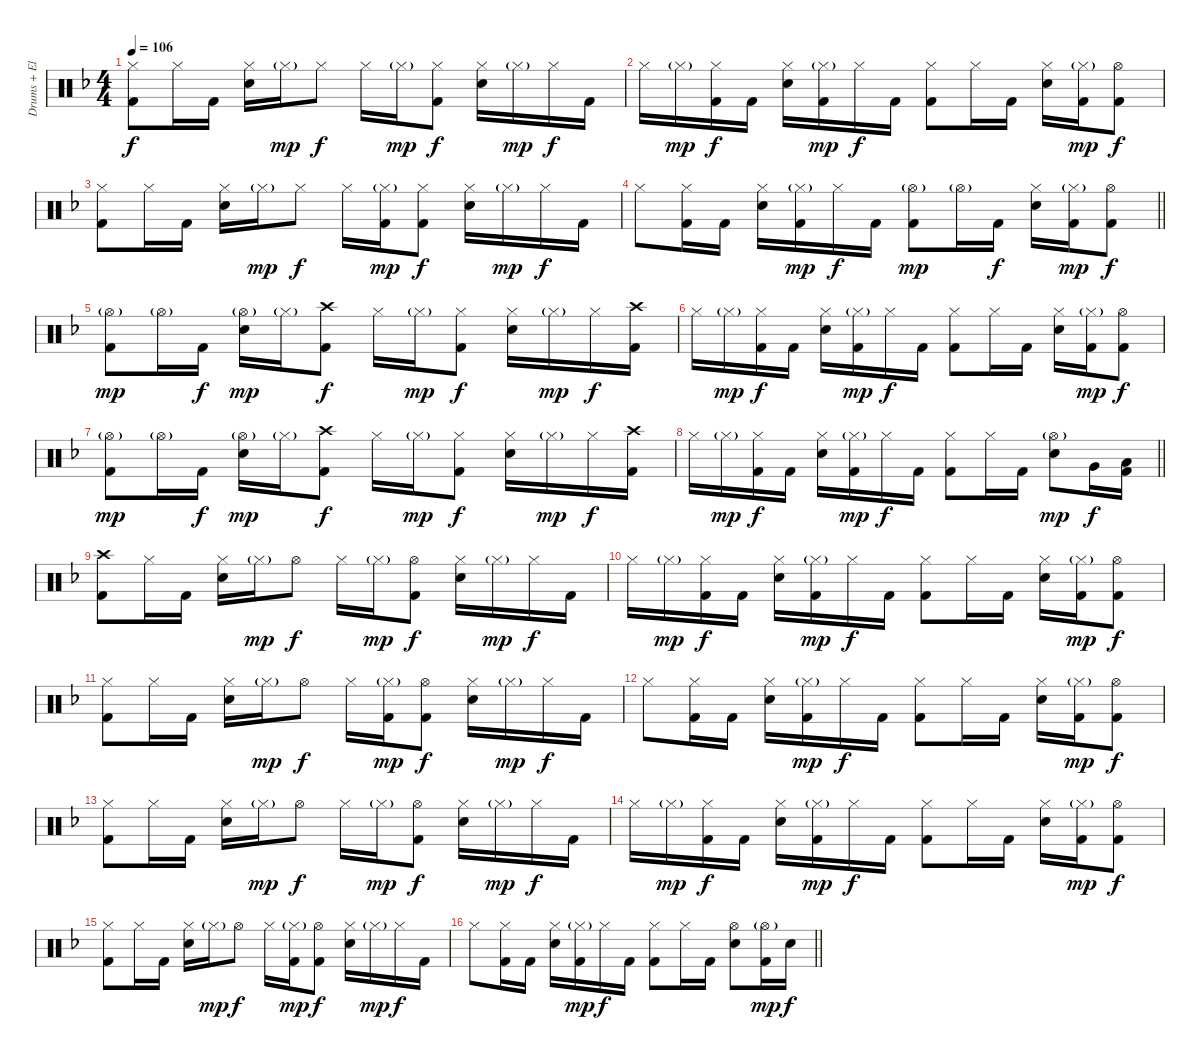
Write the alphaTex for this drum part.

\track ("Drums + Electronic drum pads" "Drums + El") {instrument percussion}
\staff {score}
\articulation defaults
\ts (4 4)
\tempo 106
\clef neutral
\ks dminor
("Hi-Hat (closed)" "Kick (hit) 2").8{dy f} "Hi-Hat (closed)".16 "Kick (hit) 2".16 ("Hi-Hat (closed)" "Snare (hit) 2").16 "Hi-Hat (closed)"{g}.16{dy mp} "Hi-Hat (closed)".8{dy f} "Hi-Hat (closed)".16 "Hi-Hat (closed)"{g}.16{dy mp} ("Hi-Hat (closed)" "Kick (hit) 2").8{dy f} ("Hi-Hat (closed)" "Snare (hit) 2").16 "Hi-Hat (closed)"{g}.16{dy mp} "Hi-Hat (closed)".16{dy f} "Kick (hit) 2".16 |
"Hi-Hat (closed)".16 "Hi-Hat (closed)"{g}.16{dy mp} ("Hi-Hat (closed)" "Kick (hit) 2").16{dy f} "Kick (hit) 2".16 ("Hi-Hat (closed)" "Snare (hit) 2").16 ("Hi-Hat (closed)"{g} "Kick (hit) 2").16{dy mp} "Hi-Hat (closed)".16{dy f} "Kick (hit) 2".16 ("Hi-Hat (closed)" "Kick (hit) 2").8 "Hi-Hat (closed)".16 "Kick (hit) 2".16 ("Hi-Hat (closed)" "Snare (hit) 2").16 ("Hi-Hat (closed)"{g} "Kick (hit) 2").16{dy mp} ("Hi-Hat (open)" "Kick (hit) 2").8{dy f} |
("Hi-Hat (closed)" "Kick (hit) 2").8 "Hi-Hat (closed)".16 "Kick (hit) 2".16 ("Hi-Hat (closed)" "Snare (hit) 2").16 "Hi-Hat (closed)"{g}.16{dy mp} "Hi-Hat (closed)".8{dy f} "Hi-Hat (closed)".16 ("Hi-Hat (closed)"{g} "Kick (hit) 2").16{dy mp} ("Hi-Hat (closed)" "Kick (hit) 2").8{dy f} ("Hi-Hat (closed)" "Snare (hit) 2").16 "Hi-Hat (closed)"{g}.16{dy mp} "Hi-Hat (closed)".16{dy f} "Kick (hit) 2".16 |
\barLineRight lightlight "Hi-Hat (closed)".8
("Hi-Hat (closed)" "Kick (hit) 2").16 "Kick (hit) 2".16 ("Hi-Hat (closed)" "Snare (hit) 2").16 ("Hi-Hat (closed)"{g} "Kick (hit) 2").16{dy mp} "Hi-Hat (closed)".16{dy f} "Kick (hit) 2".16 ("Hi-Hat (open)"{g} "Kick (hit) 2").8{dy mp} "Hi-Hat (open)"{g}.16 "Kick (hit) 2".16{dy f} ("Hi-Hat (closed)" "Snare (hit) 2").16 ("Hi-Hat (closed)"{g} "Kick (hit) 2").16{dy mp} ("Hi-Hat (open)" "Kick (hit) 2").8{dy f} |
("Hi-Hat (open)"{g} "Kick (hit) 2").8{dy mp} "Hi-Hat (open)"{g}.16 "Kick (hit) 2".16{dy f} ("Hi-Hat (open)"{g} "Snare (hit) 2").16{dy mp} "Hi-Hat (closed)"{g}.16 ("Crash high (hit)" "Kick (hit) 2").8{dy f} "Hi-Hat (closed)".16 "Hi-Hat (closed)"{g}.16{dy mp} ("Hi-Hat (closed)" "Kick (hit) 2").8{dy f} ("Hi-Hat (closed)" "Snare (hit) 2").16 "Hi-Hat (closed)"{g}.16{dy mp} "Hi-Hat (closed)".16{dy f} ("Crash high (hit)" "Kick (hit) 2").16 |
"Hi-Hat (closed)".16 "Hi-Hat (closed)"{g}.16{dy mp} ("Hi-Hat (closed)" "Kick (hit) 2").16{dy f} "Kick (hit) 2".16 ("Hi-Hat (closed)" "Snare (hit) 2").16 ("Hi-Hat (closed)"{g} "Kick (hit) 2").16{dy mp} "Hi-Hat (closed)".16{dy f} "Kick (hit) 2".16 ("Hi-Hat (closed)" "Kick (hit) 2").8 "Hi-Hat (closed)".16 "Kick (hit) 2".16 ("Hi-Hat (closed)" "Snare (hit) 2").16 ("Hi-Hat (closed)"{g} "Kick (hit) 2").16{dy mp} ("Hi-Hat (open)" "Kick (hit) 2").8{dy f} |
("Hi-Hat (open)"{g} "Kick (hit) 2").8{dy mp} "Hi-Hat (open)"{g}.16 "Kick (hit) 2".16{dy f} ("Hi-Hat (open)"{g} "Snare (hit) 2").16{dy mp} "Hi-Hat (closed)"{g}.16 ("Crash high (hit)" "Kick (hit) 2").8{dy f} "Hi-Hat (closed)".16 "Hi-Hat (closed)"{g}.16{dy mp} ("Hi-Hat (closed)" "Kick (hit) 2").8{dy f} ("Hi-Hat (closed)" "Snare (hit) 2").16 "Hi-Hat (closed)"{g}.16{dy mp} "Hi-Hat (closed)".16{dy f} ("Crash high (hit)" "Kick (hit) 2").16 |
\barLineRight lightlight "Hi-Hat (closed)".16 "Hi-Hat (closed)"{g}.16{dy mp}
("Hi-Hat (closed)" "Kick (hit) 2").16{dy f} "Kick (hit) 2".16 ("Hi-Hat (closed)" "Snare (hit) 2").16 ("Hi-Hat (closed)"{g} "Kick (hit) 2").16{dy mp} "Hi-Hat (closed)".16{dy f} "Kick (hit) 2".16 ("Hi-Hat (closed)" "Kick (hit) 2").8 "Hi-Hat (closed)".16 "Kick (hit) 2".16 ("Hi-Hat (open)"{g} "Snare (hit) 2").8{dy mp} "Very Low Tom (hit)".16{dy f} ("Low Floor Tom (hit)" "Kick (hit) 2").16 |
("Crash high (hit)" "Kick (hit) 2").8 "Hi-Hat (closed)".16 "Kick (hit) 2".16 ("Hi-Hat (closed)" "Snare (hit) 2").16 "Hi-Hat (closed)"{g}.16{dy mp} "Hi-Hat (open)".8{dy f} "Hi-Hat (closed)".16 "Hi-Hat (closed)"{g}.16{dy mp} ("Hi-Hat (open)" "Kick (hit) 2").8{dy f} ("Hi-Hat (closed)" "Snare (hit) 2").16 "Hi-Hat (closed)"{g}.16{dy mp} "Hi-Hat (closed)".16{dy f} "Kick (hit) 2".16 |
"Hi-Hat (closed)".16 "Hi-Hat (closed)"{g}.16{dy mp} ("Hi-Hat (closed)" "Kick (hit) 2").16{dy f} "Kick (hit) 2".16 ("Hi-Hat (closed)" "Snare (hit) 2").16 ("Hi-Hat (closed)"{g} "Kick (hit) 2").16{dy mp} "Hi-Hat (closed)".16{dy f} "Kick (hit) 2".16 ("Hi-Hat (closed)" "Kick (hit) 2").8 "Hi-Hat (closed)".16 "Kick (hit) 2".16 ("Hi-Hat (closed)" "Snare (hit) 2").16 ("Hi-Hat (closed)"{g} "Kick (hit) 2").16{dy mp} ("Hi-Hat (open)" "Kick (hit) 2").8{dy f} |
("Hi-Hat (closed)" "Kick (hit) 2").8 "Hi-Hat (closed)".16 "Kick (hit) 2".16 ("Hi-Hat (closed)" "Snare (hit) 2").16 "Hi-Hat (closed)"{g}.16{dy mp} "Hi-Hat (open)".8{dy f} "Hi-Hat (closed)".16 ("Hi-Hat (closed)"{g} "Kick (hit) 2").16{dy mp} ("Hi-Hat (open)" "Kick (hit) 2").8{dy f} ("Hi-Hat (closed)" "Snare (hit) 2").16 "Hi-Hat (closed)"{g}.16{dy mp} "Hi-Hat (closed)".16{dy f} "Kick (hit) 2".16 |
"Hi-Hat (closed)".8 ("Hi-Hat (closed)" "Kick (hit) 2").16 "Kick (hit) 2".16 ("Hi-Hat (closed)" "Snare (hit) 2").16 ("Hi-Hat (closed)"{g} "Kick (hit) 2").16{dy mp} "Hi-Hat (closed)".16{dy f} "Kick (hit) 2".16 ("Hi-Hat (closed)" "Kick (hit) 2").8 "Hi-Hat (closed)".16 "Kick (hit) 2".16 ("Hi-Hat (closed)" "Snare (hit) 2").16 ("Hi-Hat (closed)"{g} "Kick (hit) 2").16{dy mp} ("Hi-Hat (open)" "Kick (hit) 2").8{dy f} |
("Hi-Hat (closed)" "Kick (hit) 2").8 "Hi-Hat (closed)".16 "Kick (hit) 2".16 ("Hi-Hat (closed)" "Snare (hit) 2").16 "Hi-Hat (closed)"{g}.16{dy mp} "Hi-Hat (open)".8{dy f} "Hi-Hat (closed)".16 "Hi-Hat (closed)"{g}.16{dy mp} ("Hi-Hat (open)" "Kick (hit) 2").8{dy f} ("Hi-Hat (closed)" "Snare (hit) 2").16 "Hi-Hat (closed)"{g}.16{dy mp} "Hi-Hat (closed)".16{dy f} "Kick (hit) 2".16 |
"Hi-Hat (closed)".16 "Hi-Hat (closed)"{g}.16{dy mp} ("Hi-Hat (closed)" "Kick (hit) 2").16{dy f} "Kick (hit) 2".16 ("Hi-Hat (closed)" "Snare (hit) 2").16 ("Hi-Hat (closed)"{g} "Kick (hit) 2").16{dy mp} "Hi-Hat (closed)".16{dy f} "Kick (hit) 2".16 ("Hi-Hat (closed)" "Kick (hit) 2").8 "Hi-Hat (closed)".16 "Kick (hit) 2".16 ("Hi-Hat (closed)" "Snare (hit) 2").16 ("Hi-Hat (closed)"{g} "Kick (hit) 2").16{dy mp} ("Hi-Hat (open)" "Kick (hit) 2").8{dy f} |
("Hi-Hat (closed)" "Kick (hit) 2").8 "Hi-Hat (closed)".16 "Kick (hit) 2".16 ("Hi-Hat (closed)" "Snare (hit) 2").16 "Hi-Hat (closed)"{g}.16{dy mp} "Hi-Hat (open)".8{dy f} "Hi-Hat (closed)".16 ("Hi-Hat (closed)"{g} "Kick (hit) 2").16{dy mp} ("Hi-Hat (open)" "Kick (hit) 2").8{dy f} ("Hi-Hat (closed)" "Snare (hit) 2").16 "Hi-Hat (closed)"{g}.16{dy mp} "Hi-Hat (closed)".16{dy f} "Kick (hit) 2".16 |
\barLineRight lightlight "Hi-Hat (closed)".8
("Hi-Hat (closed)" "Kick (hit) 2").16 "Kick (hit) 2".16 ("Hi-Hat (closed)" "Snare (hit) 2").16 ("Hi-Hat (closed)"{g} "Kick (hit) 2").16{dy mp} "Hi-Hat (closed)".16{dy f} "Kick (hit) 2".16 ("Hi-Hat (closed)" "Kick (hit) 2").8 "Hi-Hat (closed)".16 "Kick (hit) 2".16 ("Hi-Hat (open)" "Snare (hit) 2").8 ("Hi-Hat (open)"{g} "Kick (hit) 2").16{dy mp} "Snare (hit) 2".16{dy f}
